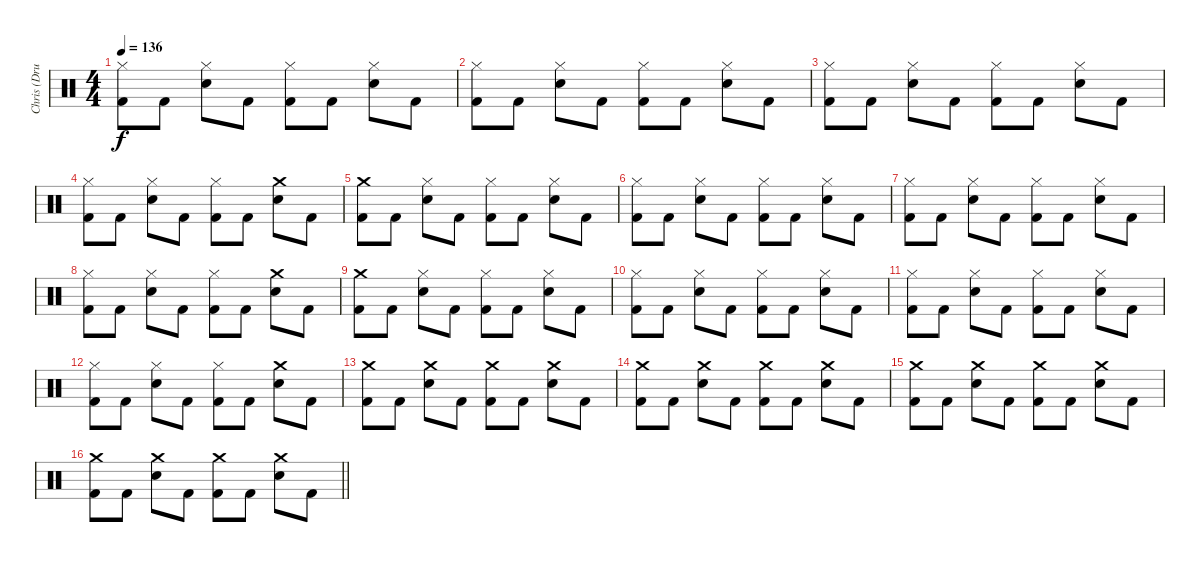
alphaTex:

\track ("Chris (Drums)" "Chris (Dru") {instrument percussion}
\staff {score}
\articulation defaults
\ts (4 4)
\tempo 136
\clef neutral
\ks c
("Hi-Hat (closed)" "Kick (hit) 2").8{dy f} "Kick (hit) 2".8 ("Hi-Hat (closed)" "Snare (hit) 2").8 "Kick (hit) 2".8 ("Hi-Hat (closed)" "Kick (hit) 2").8 "Kick (hit) 2".8 ("Hi-Hat (closed)" "Snare (hit) 2").8 "Kick (hit) 2".8 |
("Hi-Hat (closed)" "Kick (hit) 2").8 "Kick (hit) 2".8 ("Hi-Hat (closed)" "Snare (hit) 2").8 "Kick (hit) 2".8 ("Hi-Hat (closed)" "Kick (hit) 2").8 "Kick (hit) 2".8 ("Hi-Hat (closed)" "Snare (hit) 2").8 "Kick (hit) 2".8 |
("Hi-Hat (closed)" "Kick (hit) 2").8 "Kick (hit) 2".8 ("Hi-Hat (closed)" "Snare (hit) 2").8 "Kick (hit) 2".8 ("Hi-Hat (closed)" "Kick (hit) 2").8 "Kick (hit) 2".8 ("Hi-Hat (closed)" "Snare (hit) 2").8 "Kick (hit) 2".8 |
("Hi-Hat (closed)" "Kick (hit) 2").8 "Kick (hit) 2".8 ("Hi-Hat (closed)" "Snare (hit) 2").8 "Kick (hit) 2".8 ("Hi-Hat (closed)" "Kick (hit) 2").8 "Kick (hit) 2".8 ("Crash medium (hit)" "Snare (hit) 2").8 "Kick (hit) 2".8 |
("Crash medium (hit)" "Kick (hit) 2").8 "Kick (hit) 2".8 ("Hi-Hat (closed)" "Snare (hit) 2").8 "Kick (hit) 2".8 ("Hi-Hat (closed)" "Kick (hit) 2").8 "Kick (hit) 2".8 ("Hi-Hat (closed)" "Snare (hit) 2").8 "Kick (hit) 2".8 |
("Hi-Hat (closed)" "Kick (hit) 2").8 "Kick (hit) 2".8 ("Hi-Hat (closed)" "Snare (hit) 2").8 "Kick (hit) 2".8 ("Hi-Hat (closed)" "Kick (hit) 2").8 "Kick (hit) 2".8 ("Hi-Hat (closed)" "Snare (hit) 2").8 "Kick (hit) 2".8 |
("Hi-Hat (closed)" "Kick (hit) 2").8 "Kick (hit) 2".8 ("Hi-Hat (closed)" "Snare (hit) 2").8 "Kick (hit) 2".8 ("Hi-Hat (closed)" "Kick (hit) 2").8 "Kick (hit) 2".8 ("Hi-Hat (closed)" "Snare (hit) 2").8 "Kick (hit) 2".8 |
("Hi-Hat (closed)" "Kick (hit) 2").8 "Kick (hit) 2".8 ("Hi-Hat (closed)" "Snare (hit) 2").8 "Kick (hit) 2".8 ("Hi-Hat (closed)" "Kick (hit) 2").8 "Kick (hit) 2".8 ("Crash medium (hit)" "Snare (hit) 2").8 "Kick (hit) 2".8 |
("Crash medium (hit)" "Kick (hit) 2").8 "Kick (hit) 2".8 ("Hi-Hat (closed)" "Snare (hit) 2").8 "Kick (hit) 2".8 ("Hi-Hat (closed)" "Kick (hit) 2").8 "Kick (hit) 2".8 ("Hi-Hat (closed)" "Snare (hit) 2").8 "Kick (hit) 2".8 |
("Hi-Hat (closed)" "Kick (hit) 2").8 "Kick (hit) 2".8 ("Hi-Hat (closed)" "Snare (hit) 2").8 "Kick (hit) 2".8 ("Hi-Hat (closed)" "Kick (hit) 2").8 "Kick (hit) 2".8 ("Hi-Hat (closed)" "Snare (hit) 2").8 "Kick (hit) 2".8 |
("Hi-Hat (closed)" "Kick (hit) 2").8 "Kick (hit) 2".8 ("Hi-Hat (closed)" "Snare (hit) 2").8 "Kick (hit) 2".8 ("Hi-Hat (closed)" "Kick (hit) 2").8 "Kick (hit) 2".8 ("Hi-Hat (closed)" "Snare (hit) 2").8 "Kick (hit) 2".8 |
("Hi-Hat (closed)" "Kick (hit) 2").8 "Kick (hit) 2".8 ("Hi-Hat (closed)" "Snare (hit) 2").8 "Kick (hit) 2".8 ("Hi-Hat (closed)" "Kick (hit) 2").8 "Kick (hit) 2".8 ("Crash medium (hit)" "Snare (hit) 2").8 "Kick (hit) 2".8 |
("Crash medium (hit)" "Kick (hit) 2").8 "Kick (hit) 2".8 ("Crash medium (hit)" "Snare (hit) 2").8 "Kick (hit) 2".8 ("Crash medium (hit)" "Kick (hit) 2").8 "Kick (hit) 2".8 ("Crash medium (hit)" "Snare (hit) 2").8 "Kick (hit) 2".8 |
("Crash medium (hit)" "Kick (hit) 2").8 "Kick (hit) 2".8 ("Crash medium (hit)" "Snare (hit) 2").8 "Kick (hit) 2".8 ("Crash medium (hit)" "Kick (hit) 2").8 "Kick (hit) 2".8 ("Crash medium (hit)" "Snare (hit) 2").8 "Kick (hit) 2".8 |
("Crash medium (hit)" "Kick (hit) 2").8 "Kick (hit) 2".8 ("Crash medium (hit)" "Snare (hit) 2").8 "Kick (hit) 2".8 ("Crash medium (hit)" "Kick (hit) 2").8 "Kick (hit) 2".8 ("Crash medium (hit)" "Snare (hit) 2").8 "Kick (hit) 2".8 |
\barLineRight lightlight
("Crash medium (hit)" "Kick (hit) 2").8 "Kick (hit) 2".8 ("Crash medium (hit)" "Snare (hit) 2").8 "Kick (hit) 2".8 ("Crash medium (hit)" "Kick (hit) 2").8 "Kick (hit) 2".8 ("Crash medium (hit)" "Snare (hit) 2").8 "Kick (hit) 2".8
